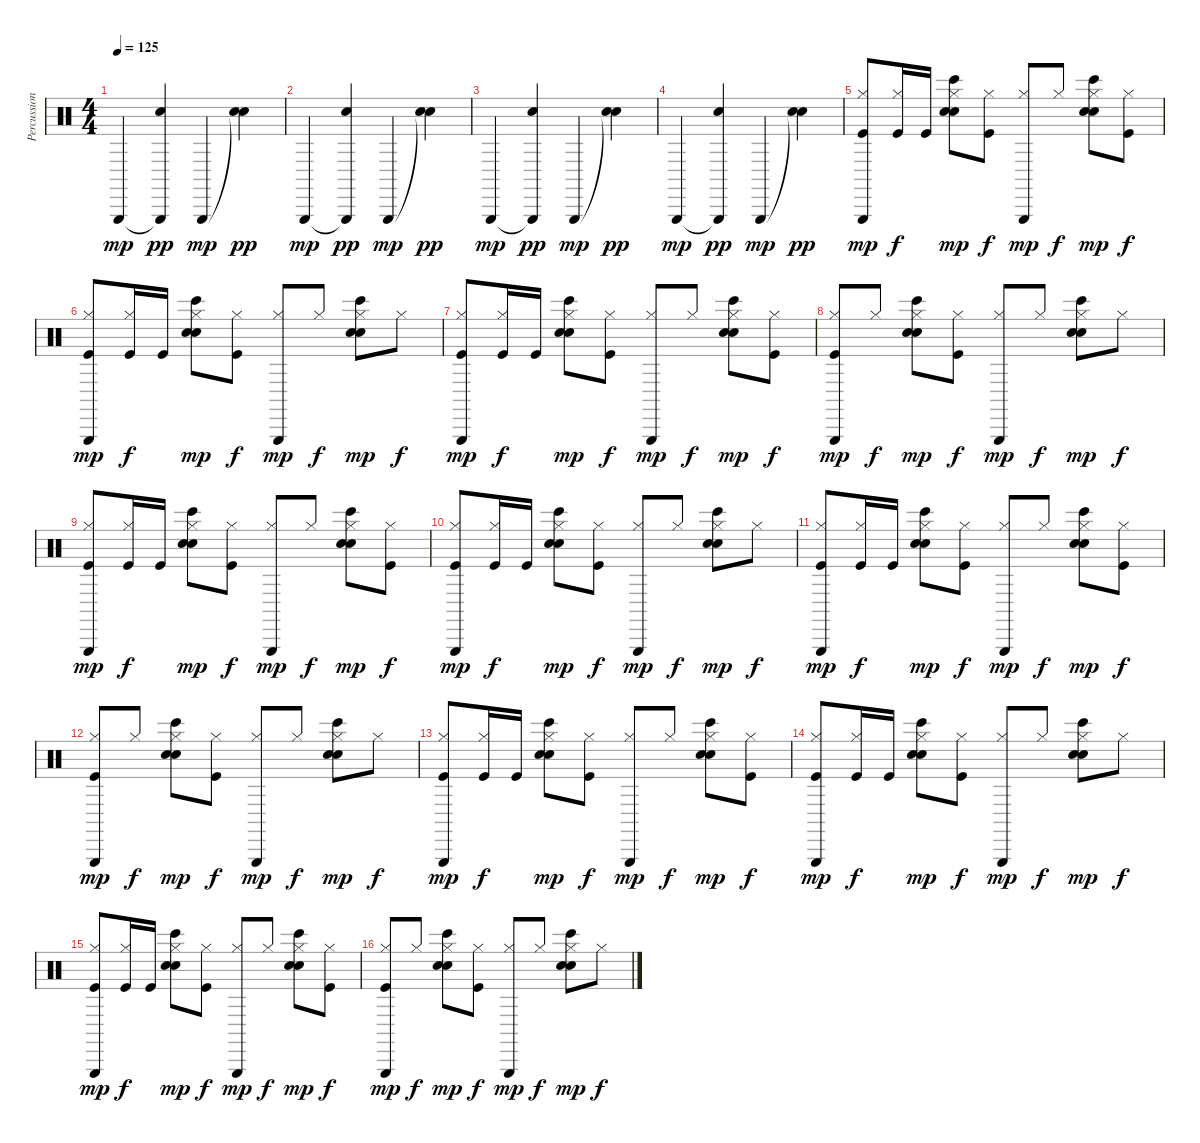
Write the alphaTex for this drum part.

\track ("Percussion" "Percussion") {instrument percussion}
\staff {score}
\articulation defaults
\ts (4 4)
\tempo 125
\clef neutral
\ks c "Triangle (hit)".4{dy mp}
("Triangle (hit)"{t} "Snare (hit) 2").4{dy pp} "Triangle (hit)".4{dy mp} ("Snare (hit)"{t} "Snare (hit) 2").4{dy pp} |
"Triangle (hit)".4{dy mp} ("Triangle (hit)"{t} "Snare (hit) 2").4{dy pp} "Triangle (hit)".4{dy mp} ("Snare (hit)"{t} "Snare (hit) 2").4{dy pp} |
"Triangle (hit)".4{dy mp} ("Triangle (hit)"{t} "Snare (hit) 2").4{dy pp} "Triangle (hit)".4{dy mp} ("Snare (hit)"{t} "Snare (hit) 2").4{dy pp} |
"Triangle (hit)".4{dy mp} ("Triangle (hit)"{t} "Snare (hit) 2").4{dy pp} "Triangle (hit)".4{dy mp} ("Snare (hit)"{t} "Snare (hit) 2").4{dy pp} |
("Hi-Hat (closed)" "Triangle (hit)" "Kick (hit)").8{dy mp} ("Hi-Hat (closed)" "Kick (hit)").16{dy f} "Kick (hit)".16 ("Hi-Hat (closed)" "Electric Snare (hit)" "Bongo High (hit)" "Electric Snare (hit)").8{dy mp} ("Hi-Hat (closed)" "Kick (hit)").8{dy f} ("Hi-Hat (closed)" "Triangle (hit)").8{dy mp} "Hi-Hat (closed)".8{dy f} ("Hi-Hat (closed)" "Electric Snare (hit)" "Bongo High (hit)" "Electric Snare (hit)").8{dy mp} ("Hi-Hat (closed)" "Kick (hit)").8{dy f} |
("Hi-Hat (closed)" "Triangle (hit)" "Kick (hit)").8{dy mp} ("Hi-Hat (closed)" "Kick (hit)").16{dy f} "Kick (hit)".16 ("Hi-Hat (closed)" "Electric Snare (hit)" "Bongo High (hit)" "Electric Snare (hit)").8{dy mp} ("Hi-Hat (closed)" "Kick (hit)").8{dy f} ("Hi-Hat (closed)" "Triangle (hit)").8{dy mp} "Hi-Hat (closed)".8{dy f} ("Hi-Hat (closed)" "Electric Snare (hit)" "Bongo High (hit)" "Electric Snare (hit)").8{dy mp} "Hi-Hat (closed)".8{dy f} |
("Hi-Hat (closed)" "Triangle (hit)" "Kick (hit)").8{dy mp} ("Hi-Hat (closed)" "Kick (hit)").16{dy f} "Kick (hit)".16 ("Hi-Hat (closed)" "Electric Snare (hit)" "Bongo High (hit)" "Electric Snare (hit)").8{dy mp} ("Hi-Hat (closed)" "Kick (hit)").8{dy f} ("Hi-Hat (closed)" "Triangle (hit)").8{dy mp} "Hi-Hat (closed)".8{dy f} ("Hi-Hat (closed)" "Electric Snare (hit)" "Bongo High (hit)" "Electric Snare (hit)").8{dy mp} ("Hi-Hat (closed)" "Kick (hit)").8{dy f} |
("Hi-Hat (closed)" "Triangle (hit)" "Kick (hit)").8{dy mp} "Hi-Hat (closed)".8{dy f} ("Hi-Hat (closed)" "Electric Snare (hit)" "Bongo High (hit)" "Electric Snare (hit)").8{dy mp} ("Hi-Hat (closed)" "Kick (hit)").8{dy f} ("Hi-Hat (closed)" "Triangle (hit)").8{dy mp} "Hi-Hat (closed)".8{dy f} ("Hi-Hat (closed)" "Electric Snare (hit)" "Bongo High (hit)" "Electric Snare (hit)").8{dy mp} "Hi-Hat (closed)".8{dy f} |
("Hi-Hat (closed)" "Triangle (hit)" "Kick (hit)").8{dy mp} ("Hi-Hat (closed)" "Kick (hit)").16{dy f} "Kick (hit)".16 ("Hi-Hat (closed)" "Electric Snare (hit)" "Bongo High (hit)" "Electric Snare (hit)").8{dy mp} ("Hi-Hat (closed)" "Kick (hit)").8{dy f} ("Hi-Hat (closed)" "Triangle (hit)").8{dy mp} "Hi-Hat (closed)".8{dy f} ("Hi-Hat (closed)" "Electric Snare (hit)" "Bongo High (hit)" "Electric Snare (hit)").8{dy mp} ("Hi-Hat (closed)" "Kick (hit)").8{dy f} |
("Hi-Hat (closed)" "Triangle (hit)" "Kick (hit)").8{dy mp} ("Hi-Hat (closed)" "Kick (hit)").16{dy f} "Kick (hit)".16 ("Hi-Hat (closed)" "Electric Snare (hit)" "Bongo High (hit)" "Electric Snare (hit)").8{dy mp} ("Hi-Hat (closed)" "Kick (hit)").8{dy f} ("Hi-Hat (closed)" "Triangle (hit)").8{dy mp} "Hi-Hat (closed)".8{dy f} ("Hi-Hat (closed)" "Electric Snare (hit)" "Bongo High (hit)" "Electric Snare (hit)").8{dy mp} "Hi-Hat (closed)".8{dy f} |
("Hi-Hat (closed)" "Triangle (hit)" "Kick (hit)").8{dy mp} ("Hi-Hat (closed)" "Kick (hit)").16{dy f} "Kick (hit)".16 ("Hi-Hat (closed)" "Electric Snare (hit)" "Bongo High (hit)" "Electric Snare (hit)").8{dy mp} ("Hi-Hat (closed)" "Kick (hit)").8{dy f} ("Hi-Hat (closed)" "Triangle (hit)").8{dy mp} "Hi-Hat (closed)".8{dy f} ("Hi-Hat (closed)" "Electric Snare (hit)" "Bongo High (hit)" "Electric Snare (hit)").8{dy mp} ("Hi-Hat (closed)" "Kick (hit)").8{dy f} |
("Hi-Hat (closed)" "Triangle (hit)" "Kick (hit)").8{dy mp} "Hi-Hat (closed)".8{dy f} ("Hi-Hat (closed)" "Electric Snare (hit)" "Bongo High (hit)" "Electric Snare (hit)").8{dy mp} ("Hi-Hat (closed)" "Kick (hit)").8{dy f} ("Hi-Hat (closed)" "Triangle (hit)").8{dy mp} "Hi-Hat (closed)".8{dy f} ("Hi-Hat (closed)" "Electric Snare (hit)" "Bongo High (hit)" "Electric Snare (hit)").8{dy mp} "Hi-Hat (closed)".8{dy f} |
("Hi-Hat (closed)" "Triangle (hit)" "Kick (hit)").8{dy mp} ("Hi-Hat (closed)" "Kick (hit)").16{dy f} "Kick (hit)".16 ("Hi-Hat (closed)" "Electric Snare (hit)" "Bongo High (hit)" "Electric Snare (hit)").8{dy mp} ("Hi-Hat (closed)" "Kick (hit)").8{dy f} ("Hi-Hat (closed)" "Triangle (hit)").8{dy mp} "Hi-Hat (closed)".8{dy f} ("Hi-Hat (closed)" "Electric Snare (hit)" "Bongo High (hit)" "Electric Snare (hit)").8{dy mp} ("Hi-Hat (closed)" "Kick (hit)").8{dy f} |
("Hi-Hat (closed)" "Triangle (hit)" "Kick (hit)").8{dy mp} ("Hi-Hat (closed)" "Kick (hit)").16{dy f} "Kick (hit)".16 ("Hi-Hat (closed)" "Electric Snare (hit)" "Bongo High (hit)" "Electric Snare (hit)").8{dy mp} ("Hi-Hat (closed)" "Kick (hit)").8{dy f} ("Hi-Hat (closed)" "Triangle (hit)").8{dy mp} "Hi-Hat (closed)".8{dy f} ("Hi-Hat (closed)" "Electric Snare (hit)" "Bongo High (hit)" "Electric Snare (hit)").8{dy mp} "Hi-Hat (closed)".8{dy f} |
("Hi-Hat (closed)" "Triangle (hit)" "Kick (hit)").8{dy mp} ("Hi-Hat (closed)" "Kick (hit)").16{dy f} "Kick (hit)".16 ("Hi-Hat (closed)" "Electric Snare (hit)" "Bongo High (hit)" "Electric Snare (hit)").8{dy mp} ("Hi-Hat (closed)" "Kick (hit)").8{dy f} ("Hi-Hat (closed)" "Triangle (hit)").8{dy mp} "Hi-Hat (closed)".8{dy f} ("Hi-Hat (closed)" "Electric Snare (hit)" "Bongo High (hit)" "Electric Snare (hit)").8{dy mp} ("Hi-Hat (closed)" "Kick (hit)").8{dy f} |
("Hi-Hat (closed)" "Triangle (hit)" "Kick (hit)").8{dy mp} "Hi-Hat (closed)".8{dy f} ("Hi-Hat (closed)" "Electric Snare (hit)" "Bongo High (hit)" "Electric Snare (hit)").8{dy mp} ("Hi-Hat (closed)" "Kick (hit)").8{dy f} ("Hi-Hat (closed)" "Triangle (hit)").8{dy mp} "Hi-Hat (closed)".8{dy f} ("Hi-Hat (closed)" "Electric Snare (hit)" "Bongo High (hit)" "Electric Snare (hit)").8{dy mp} "Hi-Hat (closed)".8{dy f}
